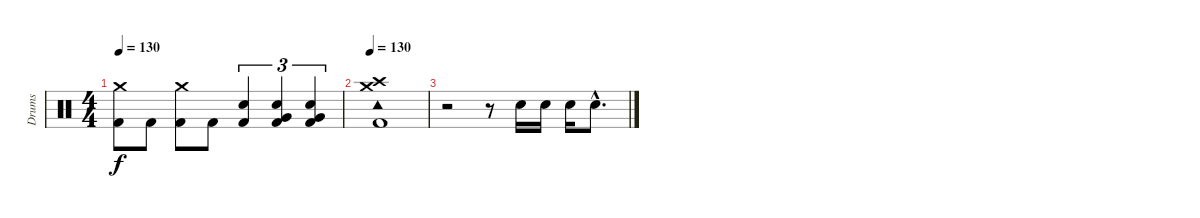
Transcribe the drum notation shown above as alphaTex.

\track ("Drums" "Drums") {instrument percussion}
\staff {score}
\articulation defaults
\ts (4 4)
\tempo 130
\clef neutral
\ks c
("Crash medium (hit)" "Kick (hit) 2").8{dy f} "Kick (hit) 2".8 ("Crash medium (hit)" "Kick (hit) 2").8 "Kick (hit) 2".8 ("Snare (hit) 2" "Kick (hit) 2").4{tu (3 2)} ("Snare (hit) 2" "Very Low Tom (hit)" "Kick (hit) 2").4{tu (3 2)} ("Snare (hit) 2" "Very Low Tom (hit)" "Kick (hit) 2").4{tu (3 2)} |
\tempo 130
("Crash high (hit)" "Crash medium (hit)" "Tambourine (hit)" "Kick (hit) 2").1 |
r.2 r.8 "Snare (hit) 2".16 "Snare (hit) 2".16 "Snare (hit) 2".16 "Snare (hit) 2"{hac}.8{d}
